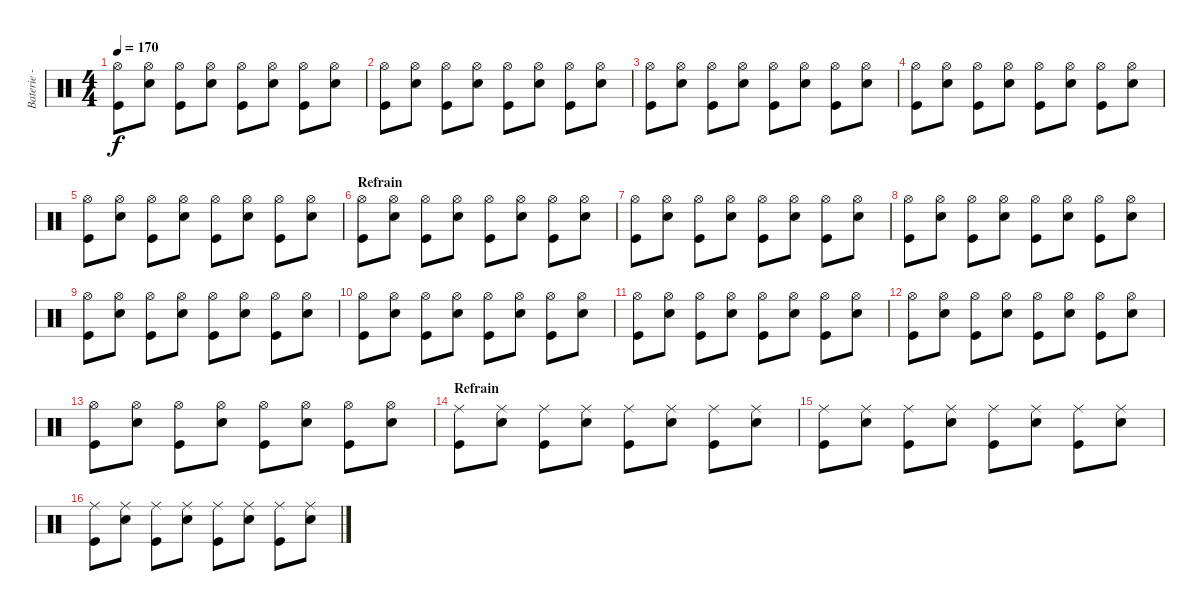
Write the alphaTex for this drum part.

\track ("Baterie - Guillaume" "Baterie - ") {instrument percussion}
\staff {score}
\articulation defaults
\ts (4 4)
\tempo 170
\clef neutral
\ks c
("Hi-Hat (open)" "Kick (hit)").8{dy f} ("Hi-Hat (open)" "Electric Snare (hit)").8 ("Hi-Hat (open)" "Kick (hit)").8 ("Hi-Hat (open)" "Electric Snare (hit)").8 ("Hi-Hat (open)" "Kick (hit)").8 ("Hi-Hat (open)" "Electric Snare (hit)").8 ("Hi-Hat (open)" "Kick (hit)").8 ("Hi-Hat (open)" "Electric Snare (hit)").8 |
("Hi-Hat (open)" "Kick (hit)").8 ("Hi-Hat (open)" "Electric Snare (hit)").8 ("Hi-Hat (open)" "Kick (hit)").8 ("Hi-Hat (open)" "Electric Snare (hit)").8 ("Hi-Hat (open)" "Kick (hit)").8 ("Hi-Hat (open)" "Electric Snare (hit)").8 ("Hi-Hat (open)" "Kick (hit)").8 ("Hi-Hat (open)" "Electric Snare (hit)").8 |
("Hi-Hat (open)" "Kick (hit)").8 ("Hi-Hat (open)" "Electric Snare (hit)").8 ("Hi-Hat (open)" "Kick (hit)").8 ("Hi-Hat (open)" "Electric Snare (hit)").8 ("Hi-Hat (open)" "Kick (hit)").8 ("Hi-Hat (open)" "Electric Snare (hit)").8 ("Hi-Hat (open)" "Kick (hit)").8 ("Hi-Hat (open)" "Electric Snare (hit)").8 |
("Hi-Hat (open)" "Kick (hit)").8 ("Hi-Hat (open)" "Electric Snare (hit)").8 ("Hi-Hat (open)" "Kick (hit)").8 ("Hi-Hat (open)" "Electric Snare (hit)").8 ("Hi-Hat (open)" "Kick (hit)").8 ("Hi-Hat (open)" "Electric Snare (hit)").8 ("Hi-Hat (open)" "Kick (hit)").8 ("Hi-Hat (open)" "Electric Snare (hit)").8 |
("Hi-Hat (open)" "Kick (hit)").8 ("Hi-Hat (open)" "Electric Snare (hit)").8 ("Hi-Hat (open)" "Kick (hit)").8 ("Hi-Hat (open)" "Electric Snare (hit)").8 ("Hi-Hat (open)" "Kick (hit)").8 ("Hi-Hat (open)" "Electric Snare (hit)").8 ("Hi-Hat (open)" "Kick (hit)").8 ("Hi-Hat (open)" "Electric Snare (hit)").8 |
\section ("" "Refrain")
("Hi-Hat (open)" "Kick (hit)").8 ("Hi-Hat (open)" "Electric Snare (hit)").8 ("Hi-Hat (open)" "Kick (hit)").8 ("Hi-Hat (open)" "Electric Snare (hit)").8 ("Hi-Hat (open)" "Kick (hit)").8 ("Hi-Hat (open)" "Electric Snare (hit)").8 ("Hi-Hat (open)" "Kick (hit)").8 ("Hi-Hat (open)" "Electric Snare (hit)").8 |
("Hi-Hat (open)" "Kick (hit)").8 ("Hi-Hat (open)" "Electric Snare (hit)").8 ("Hi-Hat (open)" "Kick (hit)").8 ("Hi-Hat (open)" "Electric Snare (hit)").8 ("Hi-Hat (open)" "Kick (hit)").8 ("Hi-Hat (open)" "Electric Snare (hit)").8 ("Hi-Hat (open)" "Kick (hit)").8 ("Hi-Hat (open)" "Electric Snare (hit)").8 |
("Hi-Hat (open)" "Kick (hit)").8 ("Hi-Hat (open)" "Electric Snare (hit)").8 ("Hi-Hat (open)" "Kick (hit)").8 ("Hi-Hat (open)" "Electric Snare (hit)").8 ("Hi-Hat (open)" "Kick (hit)").8 ("Hi-Hat (open)" "Electric Snare (hit)").8 ("Hi-Hat (open)" "Kick (hit)").8 ("Hi-Hat (open)" "Electric Snare (hit)").8 |
("Hi-Hat (open)" "Kick (hit)").8 ("Hi-Hat (open)" "Electric Snare (hit)").8 ("Hi-Hat (open)" "Kick (hit)").8 ("Hi-Hat (open)" "Electric Snare (hit)").8 ("Hi-Hat (open)" "Kick (hit)").8 ("Hi-Hat (open)" "Electric Snare (hit)").8 ("Hi-Hat (open)" "Kick (hit)").8 ("Hi-Hat (open)" "Electric Snare (hit)").8 |
("Hi-Hat (open)" "Kick (hit)").8 ("Hi-Hat (open)" "Electric Snare (hit)").8 ("Hi-Hat (open)" "Kick (hit)").8 ("Hi-Hat (open)" "Electric Snare (hit)").8 ("Hi-Hat (open)" "Kick (hit)").8 ("Hi-Hat (open)" "Electric Snare (hit)").8 ("Hi-Hat (open)" "Kick (hit)").8 ("Hi-Hat (open)" "Electric Snare (hit)").8 |
("Hi-Hat (open)" "Kick (hit)").8 ("Hi-Hat (open)" "Electric Snare (hit)").8 ("Hi-Hat (open)" "Kick (hit)").8 ("Hi-Hat (open)" "Electric Snare (hit)").8 ("Hi-Hat (open)" "Kick (hit)").8 ("Hi-Hat (open)" "Electric Snare (hit)").8 ("Hi-Hat (open)" "Kick (hit)").8 ("Hi-Hat (open)" "Electric Snare (hit)").8 |
("Hi-Hat (open)" "Kick (hit)").8 ("Hi-Hat (open)" "Electric Snare (hit)").8 ("Hi-Hat (open)" "Kick (hit)").8 ("Hi-Hat (open)" "Electric Snare (hit)").8 ("Hi-Hat (open)" "Kick (hit)").8 ("Hi-Hat (open)" "Electric Snare (hit)").8 ("Hi-Hat (open)" "Kick (hit)").8 ("Hi-Hat (open)" "Electric Snare (hit)").8 |
("Hi-Hat (open)" "Kick (hit)").8 ("Hi-Hat (open)" "Electric Snare (hit)").8 ("Hi-Hat (open)" "Kick (hit)").8 ("Hi-Hat (open)" "Electric Snare (hit)").8 ("Hi-Hat (open)" "Kick (hit)").8 ("Hi-Hat (open)" "Electric Snare (hit)").8 ("Hi-Hat (open)" "Kick (hit)").8 ("Hi-Hat (open)" "Electric Snare (hit)").8 |
\section ("" "Refrain")
("Ride (middle)" "Kick (hit)").8 ("Ride (middle)" "Electric Snare (hit)").8 ("Ride (middle)" "Kick (hit)").8 ("Ride (middle)" "Electric Snare (hit)").8 ("Ride (middle)" "Kick (hit)").8 ("Ride (middle)" "Electric Snare (hit)").8 ("Ride (middle)" "Kick (hit)").8 ("Ride (middle)" "Electric Snare (hit)").8 |
("Ride (middle)" "Kick (hit)").8 ("Ride (middle)" "Electric Snare (hit)").8 ("Ride (middle)" "Kick (hit)").8 ("Ride (middle)" "Electric Snare (hit)").8 ("Ride (middle)" "Kick (hit)").8 ("Ride (middle)" "Electric Snare (hit)").8 ("Ride (middle)" "Kick (hit)").8 ("Ride (middle)" "Electric Snare (hit)").8 |
("Ride (middle)" "Kick (hit)").8 ("Ride (middle)" "Electric Snare (hit)").8 ("Ride (middle)" "Kick (hit)").8 ("Ride (middle)" "Electric Snare (hit)").8 ("Ride (middle)" "Kick (hit)").8 ("Ride (middle)" "Electric Snare (hit)").8 ("Ride (middle)" "Kick (hit)").8 ("Ride (middle)" "Electric Snare (hit)").8
